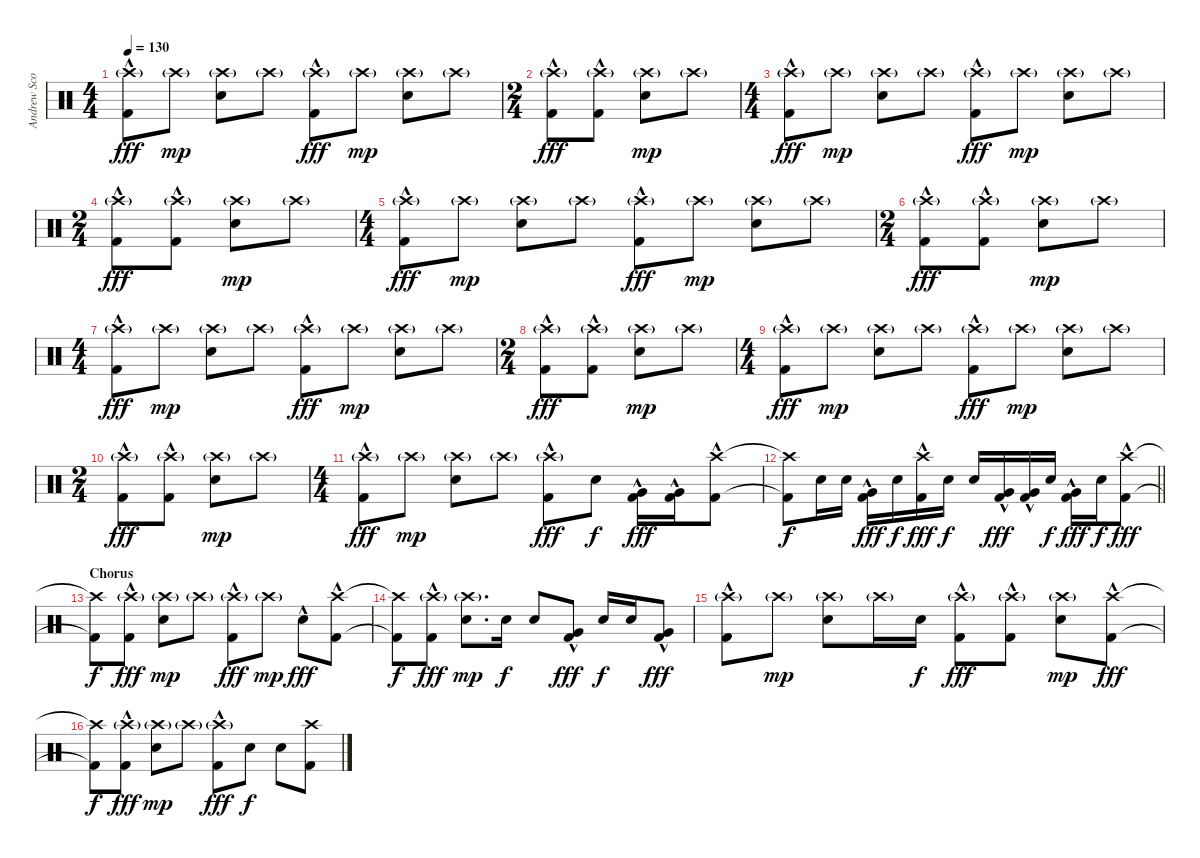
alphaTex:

\track ("Andrew Scott" "Andrew Sco") {instrument percussion}
\staff {score}
\articulation defaults
\ts (4 4)
\tempo 130
\clef neutral
\ks c
("Crash high (hit)"{g} "Kick (hit) 2"{hac}).8{dy fff} "Crash high (hit)"{g}.8{dy mp} ("Crash high (hit)"{g} "Snare (hit) 2").8 "Crash high (hit)"{g}.8 ("Crash high (hit)"{g} "Kick (hit) 2"{hac}).8{dy fff} "Crash high (hit)"{g}.8{dy mp} ("Crash high (hit)"{g} "Snare (hit) 2").8 "Crash high (hit)"{g}.8 |
\ts (2 4)
("Crash high (hit)"{g} "Kick (hit) 2"{hac}).8{dy fff} ("Crash high (hit)"{g} "Kick (hit) 2"{hac}).8 ("Crash high (hit)"{g} "Snare (hit) 2").8{dy mp} "Crash high (hit)"{g}.8 |
\ts (4 4)
("Crash high (hit)"{g} "Kick (hit) 2"{hac}).8{dy fff} "Crash high (hit)"{g}.8{dy mp} ("Crash high (hit)"{g} "Snare (hit) 2").8 "Crash high (hit)"{g}.8 ("Crash high (hit)"{g} "Kick (hit) 2"{hac}).8{dy fff} "Crash high (hit)"{g}.8{dy mp} ("Crash high (hit)"{g} "Snare (hit) 2").8 "Crash high (hit)"{g}.8 |
\ts (2 4)
("Crash high (hit)"{g} "Kick (hit) 2"{hac}).8{dy fff} ("Crash high (hit)"{g} "Kick (hit) 2"{hac}).8 ("Crash high (hit)"{g} "Snare (hit) 2").8{dy mp} "Crash high (hit)"{g}.8 |
\ts (4 4)
("Crash high (hit)"{g} "Kick (hit) 2"{hac}).8{dy fff} "Crash high (hit)"{g}.8{dy mp} ("Crash high (hit)"{g} "Snare (hit) 2").8 "Crash high (hit)"{g}.8 ("Crash high (hit)"{g} "Kick (hit) 2"{hac}).8{dy fff} "Crash high (hit)"{g}.8{dy mp} ("Crash high (hit)"{g} "Snare (hit) 2").8 "Crash high (hit)"{g}.8 |
\ts (2 4)
("Crash high (hit)"{g} "Kick (hit) 2"{hac}).8{dy fff} ("Crash high (hit)"{g} "Kick (hit) 2"{hac}).8 ("Crash high (hit)"{g} "Snare (hit) 2").8{dy mp} "Crash high (hit)"{g}.8 |
\ts (4 4)
("Crash high (hit)"{g} "Kick (hit) 2"{hac}).8{dy fff} "Crash high (hit)"{g}.8{dy mp} ("Crash high (hit)"{g} "Snare (hit) 2").8 "Crash high (hit)"{g}.8 ("Crash high (hit)"{g} "Kick (hit) 2"{hac}).8{dy fff} "Crash high (hit)"{g}.8{dy mp} ("Crash high (hit)"{g} "Snare (hit) 2").8 "Crash high (hit)"{g}.8 |
\ts (2 4)
("Crash high (hit)"{g} "Kick (hit) 2"{hac}).8{dy fff} ("Crash high (hit)"{g} "Kick (hit) 2"{hac}).8 ("Crash high (hit)"{g} "Snare (hit) 2").8{dy mp} "Crash high (hit)"{g}.8 |
\ts (4 4)
("Crash high (hit)"{g} "Kick (hit) 2"{hac}).8{dy fff} "Crash high (hit)"{g}.8{dy mp} ("Crash high (hit)"{g} "Snare (hit) 2").8 "Crash high (hit)"{g}.8 ("Crash high (hit)"{g} "Kick (hit) 2"{hac}).8{dy fff} "Crash high (hit)"{g}.8{dy mp} ("Crash high (hit)"{g} "Snare (hit) 2").8 "Crash high (hit)"{g}.8 |
\ts (2 4)
("Crash high (hit)"{g} "Kick (hit) 2"{hac}).8{dy fff} ("Crash high (hit)"{g} "Kick (hit) 2"{hac}).8 ("Crash high (hit)"{g} "Snare (hit) 2").8{dy mp} "Crash high (hit)"{g}.8 |
\ts (4 4)
("Crash high (hit)"{g} "Kick (hit) 2"{hac}).8{dy fff} "Crash high (hit)"{g}.8{dy mp} ("Crash high (hit)"{g} "Snare (hit) 2").8 "Crash high (hit)"{g}.8 ("Crash high (hit)"{g} "Kick (hit) 2"{hac}).8{dy fff} "Snare (hit) 2".8{dy f} ("Very Low Tom (hit)"{hac} "Kick (hit) 2"{hac}).16{dy fff} ("Very Low Tom (hit)"{hac} "Kick (hit) 2"{hac}).16 ("Crash high (hit)" "Kick (hit) 2"{hac}).8 |
\barLineRight lightlight
("Crash high (hit)"{t} "Kick (hit) 2"{t}).8{dy f} "Snare (hit) 2".16 "Snare (hit) 2".16 ("Very Low Tom (hit)"{hac} "Kick (hit) 2"{hac}).16{dy fff} "Snare (hit) 2".16{dy f} ("Crash high (hit)" "Kick (hit) 2"{hac}).16{dy fff} "Snare (hit) 2".16{dy f} "Snare (hit) 2".16 ("Very Low Tom (hit)"{hac} "Kick (hit) 2"{hac}).16{dy fff} ("Very Low Tom (hit)"{hac} "Kick (hit) 2"{hac}).16 "Snare (hit) 2".16{dy f} ("Very Low Tom (hit)"{hac} "Kick (hit) 2"{hac}).16{dy fff} "Snare (hit) 2".16{dy f} ("Crash high (hit)" "Kick (hit) 2"{hac}).8{dy fff} |
\section ("" "Chorus")
("Crash high (hit)"{t} "Kick (hit) 2"{t}).8{dy f} ("Crash high (hit)"{g} "Kick (hit) 2"{hac}).8{dy fff} ("Crash high (hit)"{g} "Snare (hit) 2").8{dy mp} "Crash high (hit)"{g}.8 ("Crash high (hit)"{g} "Kick (hit) 2"{hac}).8{dy fff} "Crash high (hit)"{g}.8{dy mp} "Snare (hit) 2"{hac}.8{dy fff} ("Crash high (hit)" "Kick (hit) 2"{hac}).8 |
("Crash high (hit)"{t} "Kick (hit) 2"{t}).8{dy f} ("Crash high (hit)"{g} "Kick (hit) 2"{hac}).8{dy fff} ("Crash high (hit)"{g} "Snare (hit) 2").8{d dy mp} "Snare (hit) 2".16{dy f} "Snare (hit) 2".8 ("Very Low Tom (hit)"{hac} "Kick (hit) 2"{hac}).8{dy fff} "Snare (hit) 2".16{dy f} "Snare (hit) 2".16 ("Very Low Tom (hit)"{hac} "Kick (hit) 2"{hac}).8{dy fff} |
("Crash high (hit)"{g} "Kick (hit) 2"{hac}).8 "Crash high (hit)"{g}.8{dy mp} ("Crash high (hit)"{g} "Snare (hit) 2").8 "Crash high (hit)"{g}.16 "Snare (hit) 2".16{dy f} ("Crash high (hit)"{g} "Kick (hit) 2"{hac}).8{dy fff} ("Crash high (hit)"{g} "Kick (hit) 2"{hac}).8 ("Crash high (hit)"{g} "Snare (hit) 2").8{dy mp} ("Crash high (hit)" "Kick (hit) 2"{hac}).8{dy fff} |
("Crash high (hit)"{t} "Kick (hit) 2"{t}).8{dy f} ("Crash high (hit)"{g} "Kick (hit) 2"{hac}).8{dy fff} ("Crash high (hit)"{g} "Snare (hit) 2").8{dy mp} "Crash high (hit)"{g}.8 ("Crash high (hit)"{g} "Kick (hit) 2"{hac}).8{dy fff} "Snare (hit) 2".8{dy f} "Snare (hit) 2".8 ("Crash high (hit)" "Kick (hit) 2").8
